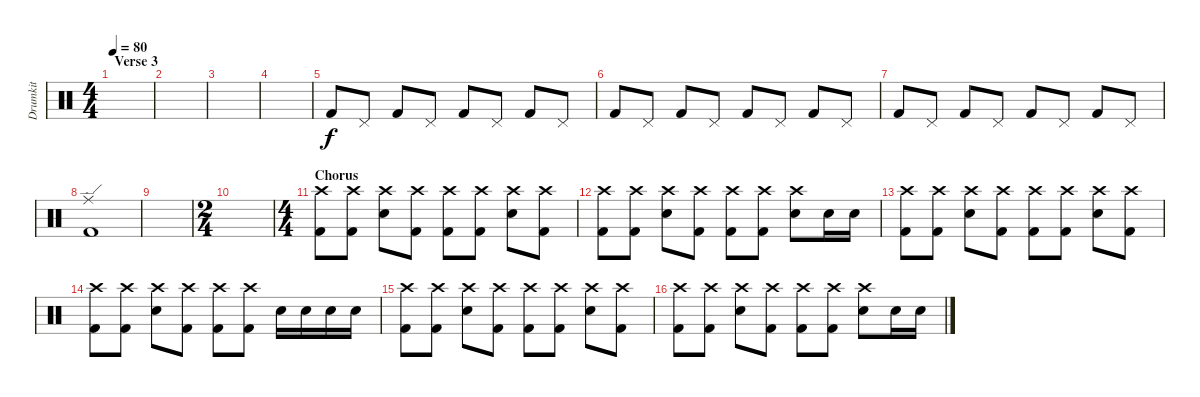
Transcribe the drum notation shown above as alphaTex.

\track ("Drumkit" "Drumkit") {instrument percussion}
\staff {score}
\articulation defaults
\ts (4 4)
\section ("" "Verse 3")
\tempo 80
\clef neutral
\ks c
|
|
|
|
"Kick (hit) 2".8 "Pedal Hi-Hat (hit)".8 "Kick (hit) 2".8 "Pedal Hi-Hat (hit)".8 "Kick (hit) 2".8 "Pedal Hi-Hat (hit)".8 "Kick (hit) 2".8 "Pedal Hi-Hat (hit)".8 |
"Kick (hit) 2".8 "Pedal Hi-Hat (hit)".8 "Kick (hit) 2".8 "Pedal Hi-Hat (hit)".8 "Kick (hit) 2".8 "Pedal Hi-Hat (hit)".8 "Kick (hit) 2".8 "Pedal Hi-Hat (hit)".8 |
"Kick (hit) 2".8 "Pedal Hi-Hat (hit)".8 "Kick (hit) 2".8 "Pedal Hi-Hat (hit)".8 "Kick (hit) 2".8 "Pedal Hi-Hat (hit)".8 "Kick (hit) 2".8 "Pedal Hi-Hat (hit)".8 |
("Kick (hit) 2" "Ride (edge)").1 |
|
\ts (2 4)
|
\ts (4 4)
\section ("" "Chorus")
("Kick (hit) 2" "Crash high (hit)").8 ("Kick (hit) 2" "Crash high (hit)").8 ("Snare (hit) 2" "Crash high (hit)").8 ("Kick (hit) 2" "Crash high (hit)").8 ("Kick (hit) 2" "Crash high (hit)").8 ("Kick (hit) 2" "Crash high (hit)").8 ("Snare (hit) 2" "Crash high (hit)").8 ("Kick (hit) 2" "Crash high (hit)").8 |
("Kick (hit) 2" "Crash high (hit)").8 ("Kick (hit) 2" "Crash high (hit)").8 ("Snare (hit) 2" "Crash high (hit)").8 ("Kick (hit) 2" "Crash high (hit)").8 ("Kick (hit) 2" "Crash high (hit)").8 ("Kick (hit) 2" "Crash high (hit)").8 ("Snare (hit) 2" "Crash high (hit)").8 "Snare (hit) 2".16 "Snare (hit) 2".16 |
("Kick (hit) 2" "Crash high (hit)").8 ("Kick (hit) 2" "Crash high (hit)").8 ("Snare (hit) 2" "Crash high (hit)").8 ("Kick (hit) 2" "Crash high (hit)").8 ("Kick (hit) 2" "Crash high (hit)").8 ("Kick (hit) 2" "Crash high (hit)").8 ("Snare (hit) 2" "Crash high (hit)").8 ("Kick (hit) 2" "Crash high (hit)").8 |
("Kick (hit) 2" "Crash high (hit)").8 ("Kick (hit) 2" "Crash high (hit)").8 ("Snare (hit) 2" "Crash high (hit)").8 ("Kick (hit) 2" "Crash high (hit)").8 ("Kick (hit) 2" "Crash high (hit)").8 ("Kick (hit) 2" "Crash high (hit)").8 "Snare (hit) 2".16 "Snare (hit) 2".16 "Snare (hit) 2".16 "Snare (hit) 2".16 |
("Kick (hit) 2" "Crash high (hit)").8 ("Kick (hit) 2" "Crash high (hit)").8 ("Snare (hit) 2" "Crash high (hit)").8 ("Kick (hit) 2" "Crash high (hit)").8 ("Kick (hit) 2" "Crash high (hit)").8 ("Kick (hit) 2" "Crash high (hit)").8 ("Snare (hit) 2" "Crash high (hit)").8 ("Kick (hit) 2" "Crash high (hit)").8 |
("Kick (hit) 2" "Crash high (hit)").8 ("Kick (hit) 2" "Crash high (hit)").8 ("Snare (hit) 2" "Crash high (hit)").8 ("Kick (hit) 2" "Crash high (hit)").8 ("Kick (hit) 2" "Crash high (hit)").8 ("Kick (hit) 2" "Crash high (hit)").8 ("Snare (hit) 2" "Crash high (hit)").8 "Snare (hit) 2".16 "Snare (hit) 2".16
